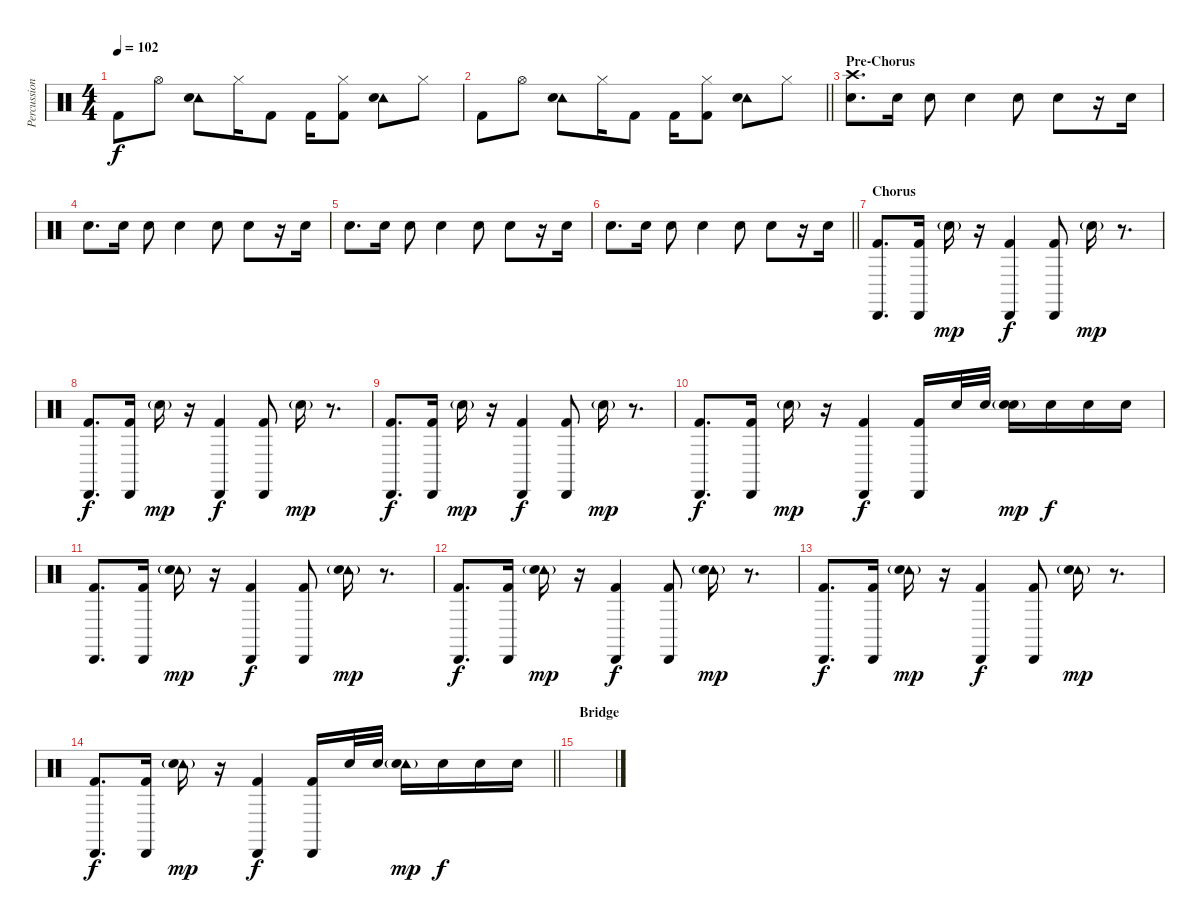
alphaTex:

\track ("Percussion" "Percussion") {instrument percussion}
\staff {score}
\articulation defaults
\ts (4 4)
\tempo 102
\clef neutral
\ks c "Kick (hit) 2".8{dy f} "Hi-Hat (open)".8
("Tambourine (hit)" "Electric Snare (hit)").8 "Hi-Hat (closed)".16 "Kick (hit) 2".8 "Kick (hit) 2".16 ("Hi-Hat (closed)" "Kick (hit) 2").8 ("Tambourine (hit)" "Electric Snare (hit)").8 "Hi-Hat (closed)".8 |
\barLineRight lightlight "Kick (hit) 2".8 "Hi-Hat (open)".8
("Tambourine (hit)" "Electric Snare (hit)").8 "Hi-Hat (closed)".16 "Kick (hit) 2".8 "Kick (hit) 2".16 ("Hi-Hat (closed)" "Kick (hit) 2").8 ("Tambourine (hit)" "Electric Snare (hit)").8 "Hi-Hat (closed)".8 |
\section ("" "Pre-Chorus")
("Crash high (hit)" "Electric Snare (hit)").8{d} "Electric Snare (hit)".16 "Electric Snare (hit)".8 "Electric Snare (hit)".4 "Electric Snare (hit)".8 "Electric Snare (hit)".8 r.16 "Electric Snare (hit)".16 |
"Electric Snare (hit)".8{d} "Electric Snare (hit)".16 "Electric Snare (hit)".8 "Electric Snare (hit)".4 "Electric Snare (hit)".8 "Electric Snare (hit)".8 r.16 "Electric Snare (hit)".16 |
"Electric Snare (hit)".8{d} "Electric Snare (hit)".16 "Electric Snare (hit)".8 "Electric Snare (hit)".4 "Electric Snare (hit)".8 "Electric Snare (hit)".8 r.16 "Electric Snare (hit)".16 |
\barLineRight lightlight "Electric Snare (hit)".8{d} "Electric Snare (hit)".16 "Electric Snare (hit)".8 "Electric Snare (hit)".4 "Electric Snare (hit)".8 "Electric Snare (hit)".8
r.16 "Electric Snare (hit)".16 |
\section ("" "Chorus")
("Cabasa (hit)" "Kick (hit) 2").8{d} ("Cabasa (hit)" "Kick (hit) 2").16 "Hand Clap (hit)"{g}.16{dy mp} r.16 ("Cabasa (hit)" "Kick (hit) 2").4{dy f} ("Cabasa (hit)" "Kick (hit) 2").8 "Hand Clap (hit)"{g}.16{dy mp} r.8{d} |
("Cabasa (hit)" "Kick (hit) 2").8{d dy f} ("Cabasa (hit)" "Kick (hit) 2").16 "Hand Clap (hit)"{g}.16{dy mp} r.16 ("Cabasa (hit)" "Kick (hit) 2").4{dy f} ("Cabasa (hit)" "Kick (hit) 2").8 "Hand Clap (hit)"{g}.16{dy mp} r.8{d} |
("Cabasa (hit)" "Kick (hit) 2").8{d dy f} ("Cabasa (hit)" "Kick (hit) 2").16 "Hand Clap (hit)"{g}.16{dy mp} r.16 ("Cabasa (hit)" "Kick (hit) 2").4{dy f} ("Cabasa (hit)" "Kick (hit) 2").8 "Hand Clap (hit)"{g}.16{dy mp} r.8{d} |
("Cabasa (hit)" "Kick (hit) 2").8{d dy f} ("Cabasa (hit)" "Kick (hit) 2").16 "Hand Clap (hit)"{g}.16{dy mp} r.16 ("Cabasa (hit)" "Kick (hit) 2").4{dy f} ("Cabasa (hit)" "Kick (hit) 2").16 "Electric Snare (hit)".32 "Electric Snare (hit)".32 ("Hand Clap (hit)"{g} "Electric Snare (hit)").16{dy mp} "Electric Snare (hit)".16{dy f} "Electric Snare (hit)".16 "Electric Snare (hit)".16 |
("Cabasa (hit)" "Kick (hit) 2").8{d} ("Cabasa (hit)" "Kick (hit) 2").16 ("Tambourine (hit)"{g} "Electric Snare (hit)").16{dy mp} r.16 ("Cabasa (hit)" "Kick (hit) 2").4{dy f} ("Cabasa (hit)" "Kick (hit) 2").8 ("Tambourine (hit)"{g} "Electric Snare (hit)").16{dy mp} r.8{d} |
("Cabasa (hit)" "Kick (hit) 2").8{d dy f} ("Cabasa (hit)" "Kick (hit) 2").16 ("Tambourine (hit)"{g} "Electric Snare (hit)").16{dy mp} r.16 ("Cabasa (hit)" "Kick (hit) 2").4{dy f} ("Cabasa (hit)" "Kick (hit) 2").8 ("Tambourine (hit)"{g} "Electric Snare (hit)").16{dy mp} r.8{d} |
("Cabasa (hit)" "Kick (hit) 2").8{d dy f} ("Cabasa (hit)" "Kick (hit) 2").16 ("Tambourine (hit)"{g} "Electric Snare (hit)").16{dy mp} r.16 ("Cabasa (hit)" "Kick (hit) 2").4{dy f} ("Cabasa (hit)" "Kick (hit) 2").8 ("Tambourine (hit)"{g} "Electric Snare (hit)").16{dy mp} r.8{d} |
\barLineRight lightlight
("Cabasa (hit)" "Kick (hit) 2").8{d dy f} ("Cabasa (hit)" "Kick (hit) 2").16 ("Tambourine (hit)"{g} "Electric Snare (hit)").16{dy mp} r.16 ("Cabasa (hit)" "Kick (hit) 2").4{dy f} ("Cabasa (hit)" "Kick (hit) 2").16 "Electric Snare (hit)".32 "Electric Snare (hit)".32 ("Tambourine (hit)"{g} "Electric Snare (hit)").16{dy mp} "Electric Snare (hit)".16{dy f} "Electric Snare (hit)".16 "Electric Snare (hit)".16 |
\section ("" "Bridge")
